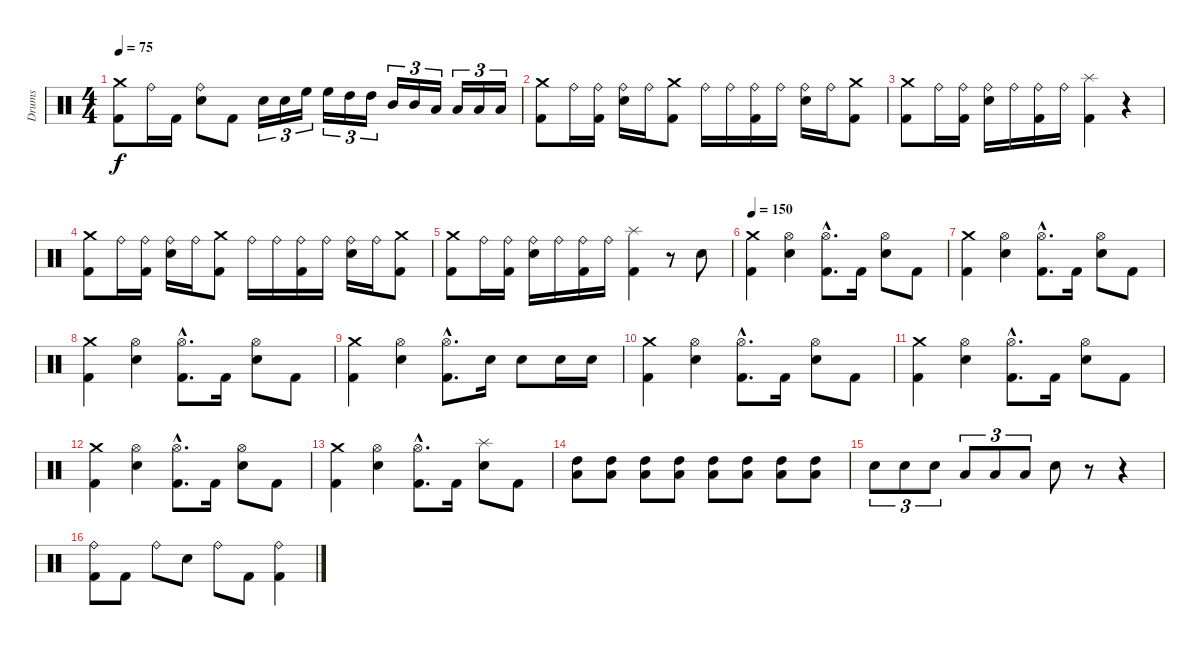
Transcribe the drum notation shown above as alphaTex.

\track ("Drums" "Drums") {instrument percussion}
\staff {score}
\articulation defaults
\ts (4 4)
\tempo 75
\clef neutral
\ks c
("Crash medium (hit)" "Kick (hit) 2").8{dy f} "Ride (bell)".16 "Kick (hit) 2".16 ("Ride (bell)" "Electric Snare (hit)").8 "Kick (hit) 2".8 "Electric Snare (hit)".16{tu (3 2)} "Electric Snare (hit)".16{tu (3 2)} "High Floor Tom (hit)".16{tu (3 2)} "High Floor Tom (hit)".16{tu (3 2)} "High Tom (hit)".16{tu (3 2)} "High Tom (hit)".16{tu (3 2)} "Mid Tom (hit)".16{tu (3 2)} "Mid Tom (hit)".16{tu (3 2)} "Low Tom (hit)".16{tu (3 2)} "Low Tom (hit)".16{tu (3 2)} "Low Floor Tom (hit)".16{tu (3 2)} "Low Floor Tom (hit)".16{tu (3 2)} |
("Crash medium (hit)" "Kick (hit) 2").8 "Ride (bell)".16 ("Ride (bell)" "Kick (hit) 2").16 ("Ride (bell)" "Electric Snare (hit)").16 "Ride (bell)".16 ("Crash medium (hit)" "Kick (hit) 2").8 "Ride (bell)".16 "Ride (bell)".16 ("Ride (bell)" "Kick (hit) 2").16 "Ride (bell)".16 ("Ride (bell)" "Electric Snare (hit)").16 "Ride (bell)".16 ("Crash medium (hit)" "Kick (hit) 2").8 |
("Crash medium (hit)" "Kick (hit) 2").8 "Ride (bell)".16 ("Ride (bell)" "Kick (hit) 2").16 ("Ride (bell)" "Electric Snare (hit)").16 "Ride (bell)".16 ("Ride (bell)" "Kick (hit) 2").16 "Ride (bell)".16 ("Splash (hit)" "Kick (hit) 2").4 r.4 |
("Crash medium (hit)" "Kick (hit) 2").8 "Ride (bell)".16 ("Ride (bell)" "Kick (hit) 2").16 ("Ride (bell)" "Electric Snare (hit)").16 "Ride (bell)".16 ("Crash medium (hit)" "Kick (hit) 2").8 "Ride (bell)".16 "Ride (bell)".16 ("Ride (bell)" "Kick (hit) 2").16 "Ride (bell)".16 ("Ride (bell)" "Electric Snare (hit)").16 "Ride (bell)".16 ("Crash medium (hit)" "Kick (hit) 2").8 |
("Crash medium (hit)" "Kick (hit) 2").8 "Ride (bell)".16 ("Ride (bell)" "Kick (hit) 2").16 ("Ride (bell)" "Electric Snare (hit)").16 "Ride (bell)".16 ("Ride (bell)" "Kick (hit) 2").16 "Ride (bell)".16 ("Splash (hit)" "Kick (hit) 2").4 r.8 "Electric Snare (hit)".8 |
\tempo 150
("Crash medium (hit)" "Kick (hit) 2").4 ("Hi-Hat (open)" "Electric Snare (hit)").4 ("Hi-Hat (open)"{hac} "Kick (hit) 2"{hac}).8{d} "Kick (hit) 2".16 ("Hi-Hat (open)" "Electric Snare (hit)").8 "Kick (hit) 2".8 |
("Crash medium (hit)" "Kick (hit) 2").4 ("Hi-Hat (open)" "Electric Snare (hit)").4 ("Hi-Hat (open)"{hac} "Kick (hit) 2"{hac}).8{d} "Kick (hit) 2".16 ("Hi-Hat (open)" "Electric Snare (hit)").8 "Kick (hit) 2".8 |
("Crash medium (hit)" "Kick (hit) 2").4 ("Hi-Hat (open)" "Electric Snare (hit)").4 ("Hi-Hat (open)"{hac} "Kick (hit) 2"{hac}).8{d} "Kick (hit) 2".16 ("Hi-Hat (open)" "Electric Snare (hit)").8 "Kick (hit) 2".8 |
("Crash medium (hit)" "Kick (hit) 2").4 ("Hi-Hat (open)" "Electric Snare (hit)").4 ("Hi-Hat (open)"{hac} "Kick (hit) 2"{hac}).8{d} "Electric Snare (hit)".16 "Electric Snare (hit)".8 "Electric Snare (hit)".16 "Electric Snare (hit)".16 |
("Crash medium (hit)" "Kick (hit) 2").4 ("Hi-Hat (open)" "Electric Snare (hit)").4 ("Hi-Hat (open)"{hac} "Kick (hit) 2"{hac}).8{d} "Kick (hit) 2".16 ("Hi-Hat (open)" "Electric Snare (hit)").8 "Kick (hit) 2".8 |
("Crash medium (hit)" "Kick (hit) 2").4 ("Hi-Hat (open)" "Electric Snare (hit)").4 ("Hi-Hat (open)"{hac} "Kick (hit) 2"{hac}).8{d} "Kick (hit) 2".16 ("Hi-Hat (open)" "Electric Snare (hit)").8 "Kick (hit) 2".8 |
("Crash medium (hit)" "Kick (hit) 2").4 ("Hi-Hat (open)" "Electric Snare (hit)").4 ("Hi-Hat (open)"{hac} "Kick (hit) 2"{hac}).8{d} "Kick (hit) 2".16 ("Hi-Hat (open)" "Electric Snare (hit)").8 "Kick (hit) 2".8 |
("Crash medium (hit)" "Kick (hit) 2").4 ("Hi-Hat (open)" "Electric Snare (hit)").4 ("Hi-Hat (open)"{hac} "Kick (hit) 2"{hac}).8{d} "Kick (hit) 2".16 ("Splash (hit)" "Electric Snare (hit)").8 "Kick (hit) 2".8 |
("High Tom (hit)" "Low Tom (hit)").8 ("High Tom (hit)" "Low Tom (hit)").8 ("High Tom (hit)" "Low Tom (hit)").8 ("High Tom (hit)" "Low Tom (hit)").8 ("High Tom (hit)" "Low Floor Tom (hit)").8 ("High Tom (hit)" "Low Floor Tom (hit)").8 ("High Tom (hit)" "Low Floor Tom (hit)").8 ("High Tom (hit)" "Low Floor Tom (hit)").8 |
"Electric Snare (hit)".8{tu (3 2)} "Electric Snare (hit)".8{tu (3 2)} "Electric Snare (hit)".8{tu (3 2)} "Low Tom (hit)".8{tu (3 2)} "Low Tom (hit)".8{tu (3 2)} "Low Tom (hit)".8{tu (3 2)} "Electric Snare (hit)".8 r.8 r.4 |
("Ride (bell)" "Kick (hit) 2").8 "Kick (hit) 2".8 "Ride (bell)".8 "Electric Snare (hit)".8 "Ride (bell)".8 "Kick (hit) 2".8 ("Ride (bell)" "Kick (hit) 2").4
